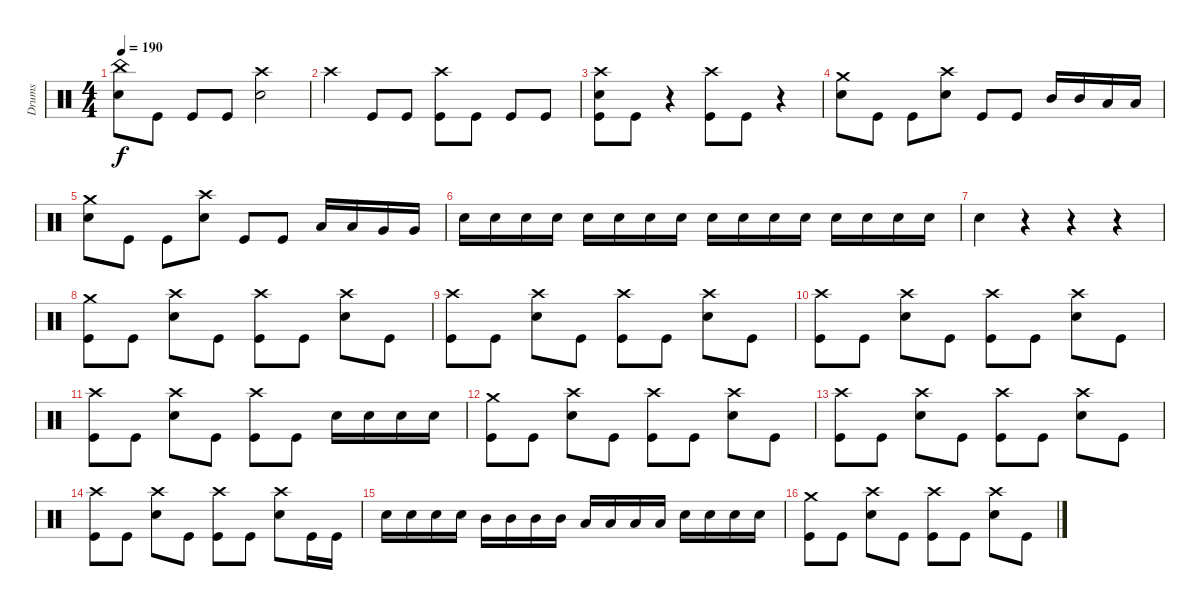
\track ("Drums" "Drums") {instrument percussion}
\staff {score}
\articulation defaults
\ts (4 4)
\tempo 190
\clef neutral
\ks c
("China (hit)" "Snare (hit) 2").8{dy f} "Kick (hit)".8 "Kick (hit)".8 "Kick (hit)".8 ("Crash high (hit)" "Snare (hit) 2").2 |
"Crash high (hit)".4 "Kick (hit)".8 "Kick (hit)".8 ("Crash high (hit)" "Kick (hit)").8 "Kick (hit)".8 "Kick (hit)".8 "Kick (hit)".8 |
("Crash high (hit)" "Snare (hit) 2" "Kick (hit)").8 "Kick (hit)".8 r.4 ("Crash high (hit)" "Kick (hit)").8 "Kick (hit)".8 r.4 |
("Crash medium (hit)" "Snare (hit) 2").8 "Kick (hit)".8 "Kick (hit)".8 ("Crash high (hit)" "Snare (hit) 2").8 "Kick (hit)".8 "Kick (hit)".8 "Mid Tom (hit)".16 "Mid Tom (hit)".16 "Low Tom (hit)".16 "Low Tom (hit)".16 |
("Crash medium (hit)" "Snare (hit) 2").8 "Kick (hit)".8 "Kick (hit)".8 ("Crash high (hit)" "Snare (hit) 2").8 "Kick (hit)".8 "Kick (hit)".8 "Low Tom (hit)".16 "Low Tom (hit)".16 "Very Low Tom (hit)".16 "Very Low Tom (hit)".16 |
"Snare (hit) 2".16 "Snare (hit) 2".16 "Snare (hit) 2".16 "Snare (hit) 2".16 "Snare (hit) 2".16 "Snare (hit) 2".16 "Snare (hit) 2".16 "Snare (hit) 2".16 "Snare (hit) 2".16 "Snare (hit) 2".16 "Snare (hit) 2".16 "Snare (hit) 2".16 "Snare (hit) 2".16 "Snare (hit) 2".16 "Snare (hit) 2".16 "Snare (hit) 2".16 |
"Snare (hit) 2".4 r.4 r.4 r.4 |
("Crash medium (hit)" "Kick (hit)").8 "Kick (hit)".8 ("Crash high (hit)" "Snare (hit) 2").8 "Kick (hit)".8 ("Crash high (hit)" "Kick (hit)").8 "Kick (hit)".8 ("Crash high (hit)" "Snare (hit) 2").8 "Kick (hit)".8 |
("Crash high (hit)" "Kick (hit)").8 "Kick (hit)".8 ("Crash high (hit)" "Snare (hit) 2").8 "Kick (hit)".8 ("Crash high (hit)" "Kick (hit)").8 "Kick (hit)".8 ("Crash high (hit)" "Snare (hit) 2").8 "Kick (hit)".8 |
("Crash high (hit)" "Kick (hit)").8 "Kick (hit)".8 ("Crash high (hit)" "Snare (hit) 2").8 "Kick (hit)".8 ("Crash high (hit)" "Kick (hit)").8 "Kick (hit)".8 ("Crash high (hit)" "Snare (hit) 2").8 "Kick (hit)".8 |
("Crash high (hit)" "Kick (hit)").8 "Kick (hit)".8 ("Crash high (hit)" "Snare (hit) 2").8 "Kick (hit)".8 ("Crash high (hit)" "Kick (hit)").8 "Kick (hit)".8 "Snare (hit) 2".16 "Snare (hit) 2".16 "Snare (hit) 2".16 "Snare (hit) 2".16 |
("Crash medium (hit)" "Kick (hit)").8 "Kick (hit)".8 ("Crash high (hit)" "Snare (hit) 2").8 "Kick (hit)".8 ("Crash high (hit)" "Kick (hit)").8 "Kick (hit)".8 ("Crash high (hit)" "Snare (hit) 2").8 "Kick (hit)".8 |
("Crash high (hit)" "Kick (hit)").8 "Kick (hit)".8 ("Crash high (hit)" "Snare (hit) 2").8 "Kick (hit)".8 ("Crash high (hit)" "Kick (hit)").8 "Kick (hit)".8 ("Crash high (hit)" "Snare (hit) 2").8 "Kick (hit)".8 |
("Crash high (hit)" "Kick (hit)").8 "Kick (hit)".8 ("Crash high (hit)" "Snare (hit) 2").8 "Kick (hit)".8 ("Crash high (hit)" "Kick (hit)").8 "Kick (hit)".8 ("Crash high (hit)" "Snare (hit) 2").8 "Kick (hit)".16 "Kick (hit)".16 |
"Snare (hit) 2".16 "Snare (hit) 2".16 "Snare (hit) 2".16 "Snare (hit) 2".16 "Mid Tom (hit)".16 "Mid Tom (hit)".16 "Mid Tom (hit)".16 "Mid Tom (hit)".16 "Low Tom (hit)".16 "Low Tom (hit)".16 "Low Tom (hit)".16 "Low Tom (hit)".16 "Snare (hit) 2".16 "Snare (hit) 2".16 "Snare (hit) 2".16 "Snare (hit) 2".16 |
("Crash medium (hit)" "Kick (hit)").8 "Kick (hit)".8 ("Crash high (hit)" "Snare (hit) 2").8 "Kick (hit)".8 ("Crash high (hit)" "Kick (hit)").8 "Kick (hit)".8 ("Crash high (hit)" "Snare (hit) 2").8 "Kick (hit)".8
